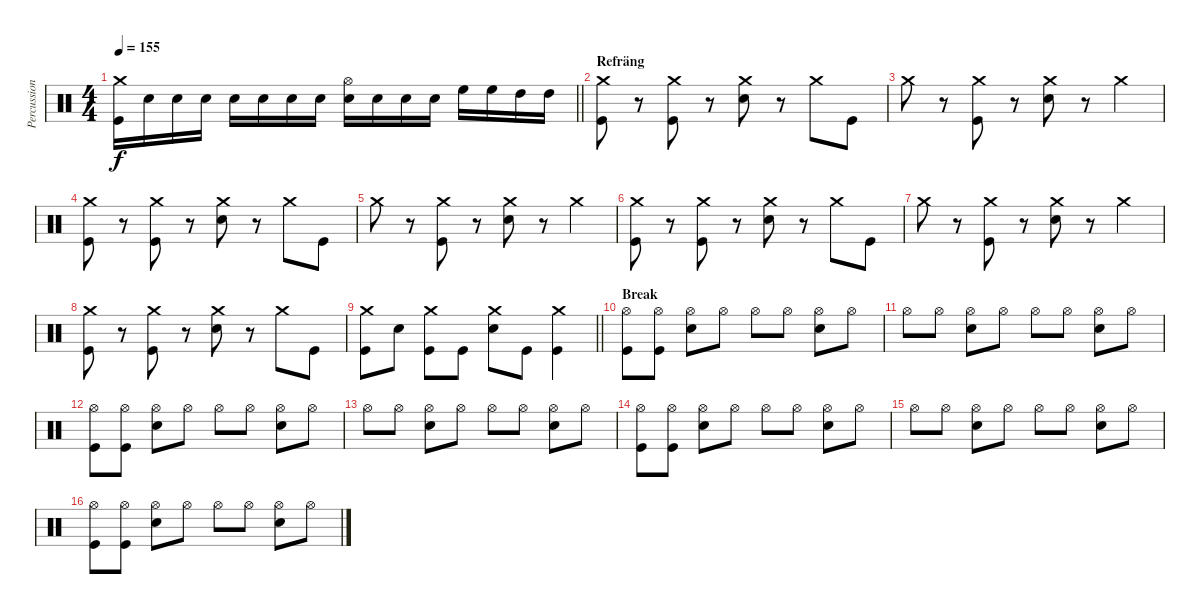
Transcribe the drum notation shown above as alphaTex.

\track ("Percussion" "Percussion") {instrument percussion}
\staff {score}
\articulation defaults
\ts (4 4)
\tempo 155
\clef neutral
\barLineRight lightlight
\ks c
("Crash medium (hit)" "Kick (hit)").16{dy f} "Electric Snare (hit)".16 "Electric Snare (hit)".16 "Electric Snare (hit)".16 "Electric Snare (hit)".16 "Electric Snare (hit)".16 "Electric Snare (hit)".16 "Electric Snare (hit)".16 ("Hi-Hat (open)" "Electric Snare (hit)").16 "Electric Snare (hit)".16 "Electric Snare (hit)".16 "Electric Snare (hit)".16 "High Floor Tom (hit)".16 "High Floor Tom (hit)".16 "High Tom (hit)".16 "High Tom (hit)".16 |
\section ("" "Refräng")
("Crash medium (hit)" "Kick (hit)").8 r.8 ("Crash medium (hit)" "Kick (hit)").8 r.8 ("Crash medium (hit)" "Electric Snare (hit)").8 r.8 "Crash medium (hit)".8 "Kick (hit)".8 |
"Crash medium (hit)".8 r.8 ("Crash medium (hit)" "Kick (hit)").8 r.8 ("Crash medium (hit)" "Electric Snare (hit)").8 r.8 "Crash medium (hit)".4 |
("Crash medium (hit)" "Kick (hit)").8 r.8 ("Crash medium (hit)" "Kick (hit)").8 r.8 ("Crash medium (hit)" "Electric Snare (hit)").8 r.8 "Crash medium (hit)".8 "Kick (hit)".8 |
"Crash medium (hit)".8 r.8 ("Crash medium (hit)" "Kick (hit)").8 r.8 ("Crash medium (hit)" "Electric Snare (hit)").8 r.8 "Crash medium (hit)".4 |
("Crash medium (hit)" "Kick (hit)").8 r.8 ("Crash medium (hit)" "Kick (hit)").8 r.8 ("Crash medium (hit)" "Electric Snare (hit)").8 r.8 "Crash medium (hit)".8 "Kick (hit)".8 |
"Crash medium (hit)".8 r.8 ("Crash medium (hit)" "Kick (hit)").8 r.8 ("Crash medium (hit)" "Electric Snare (hit)").8 r.8 "Crash medium (hit)".4 |
("Crash medium (hit)" "Kick (hit)").8 r.8 ("Crash medium (hit)" "Kick (hit)").8 r.8 ("Crash medium (hit)" "Electric Snare (hit)").8 r.8 "Crash medium (hit)".8 "Kick (hit)".8 |
\barLineRight lightlight
("Crash medium (hit)" "Kick (hit)").8 "Electric Snare (hit)".8 ("Crash medium (hit)" "Kick (hit)").8 "Kick (hit)".8 ("Crash medium (hit)" "Electric Snare (hit)").8 "Kick (hit)".8 ("Crash medium (hit)" "Kick (hit)").4 |
\section ("" "Break")
("Hi-Hat (open)" "Kick (hit)").8 ("Hi-Hat (open)" "Kick (hit)").8 ("Hi-Hat (open)" "Electric Snare (hit)").8 "Hi-Hat (open)".8 "Hi-Hat (open)".8 "Hi-Hat (open)".8 ("Hi-Hat (open)" "Electric Snare (hit)").8 "Hi-Hat (open)".8 |
"Hi-Hat (open)".8 "Hi-Hat (open)".8 ("Hi-Hat (open)" "Electric Snare (hit)").8 "Hi-Hat (open)".8 "Hi-Hat (open)".8 "Hi-Hat (open)".8 ("Hi-Hat (open)" "Electric Snare (hit)").8 "Hi-Hat (open)".8 |
("Hi-Hat (open)" "Kick (hit)").8 ("Hi-Hat (open)" "Kick (hit)").8 ("Hi-Hat (open)" "Electric Snare (hit)").8 "Hi-Hat (open)".8 "Hi-Hat (open)".8 "Hi-Hat (open)".8 ("Hi-Hat (open)" "Electric Snare (hit)").8 "Hi-Hat (open)".8 |
"Hi-Hat (open)".8 "Hi-Hat (open)".8 ("Hi-Hat (open)" "Electric Snare (hit)").8 "Hi-Hat (open)".8 "Hi-Hat (open)".8 "Hi-Hat (open)".8 ("Hi-Hat (open)" "Electric Snare (hit)").8 "Hi-Hat (open)".8 |
("Hi-Hat (open)" "Kick (hit)").8 ("Hi-Hat (open)" "Kick (hit)").8 ("Hi-Hat (open)" "Electric Snare (hit)").8 "Hi-Hat (open)".8 "Hi-Hat (open)".8 "Hi-Hat (open)".8 ("Hi-Hat (open)" "Electric Snare (hit)").8 "Hi-Hat (open)".8 |
"Hi-Hat (open)".8 "Hi-Hat (open)".8 ("Hi-Hat (open)" "Electric Snare (hit)").8 "Hi-Hat (open)".8 "Hi-Hat (open)".8 "Hi-Hat (open)".8 ("Hi-Hat (open)" "Electric Snare (hit)").8 "Hi-Hat (open)".8 |
("Hi-Hat (open)" "Kick (hit)").8 ("Hi-Hat (open)" "Kick (hit)").8 ("Hi-Hat (open)" "Electric Snare (hit)").8 "Hi-Hat (open)".8 "Hi-Hat (open)".8 "Hi-Hat (open)".8 ("Hi-Hat (open)" "Electric Snare (hit)").8 "Hi-Hat (open)".8
